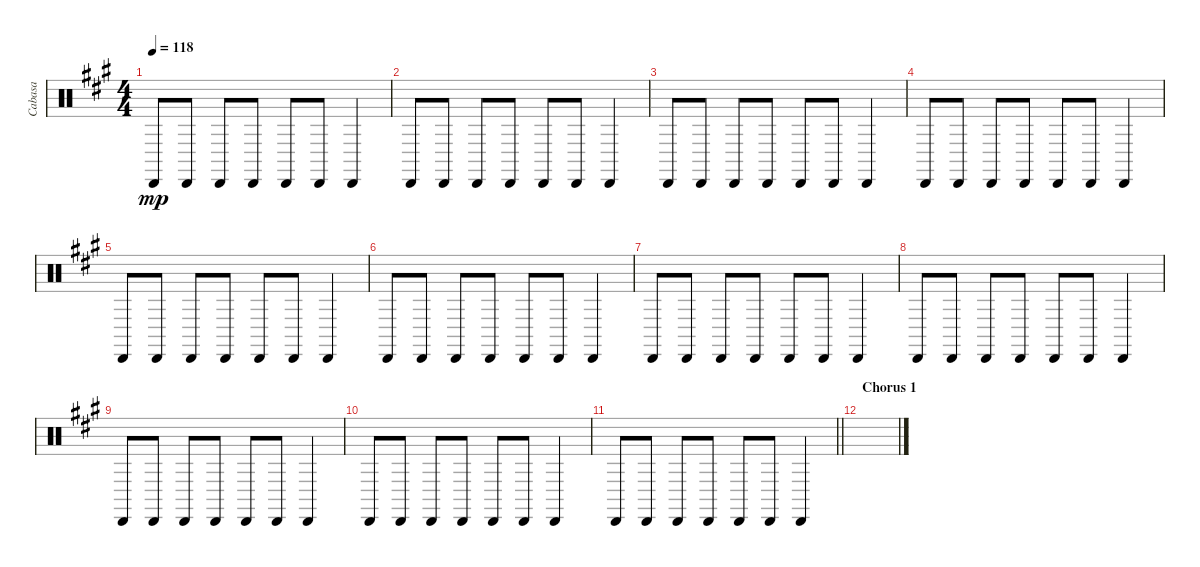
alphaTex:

\track ("Cabasa" "Cabasa") {instrument percussion}
\staff {score}
\articulation defaults
\ts (4 4)
\tempo 118
\clef neutral
\ks a "Cabasa (hit)".8{dy mp} "Cabasa (hit)".8 "Cabasa (hit)".8 "Cabasa (hit)".8 "Cabasa (hit)".8 "Cabasa (hit)".8 "Cabasa (hit)".4
|
"Cabasa (hit)".8 "Cabasa (hit)".8 "Cabasa (hit)".8 "Cabasa (hit)".8 "Cabasa (hit)".8 "Cabasa (hit)".8 "Cabasa (hit)".4 |
"Cabasa (hit)".8 "Cabasa (hit)".8 "Cabasa (hit)".8 "Cabasa (hit)".8 "Cabasa (hit)".8 "Cabasa (hit)".8 "Cabasa (hit)".4 |
"Cabasa (hit)".8 "Cabasa (hit)".8 "Cabasa (hit)".8 "Cabasa (hit)".8 "Cabasa (hit)".8 "Cabasa (hit)".8 "Cabasa (hit)".4 |
"Cabasa (hit)".8 "Cabasa (hit)".8 "Cabasa (hit)".8 "Cabasa (hit)".8 "Cabasa (hit)".8 "Cabasa (hit)".8 "Cabasa (hit)".4 |
"Cabasa (hit)".8 "Cabasa (hit)".8 "Cabasa (hit)".8 "Cabasa (hit)".8 "Cabasa (hit)".8 "Cabasa (hit)".8 "Cabasa (hit)".4 |
"Cabasa (hit)".8 "Cabasa (hit)".8 "Cabasa (hit)".8 "Cabasa (hit)".8 "Cabasa (hit)".8 "Cabasa (hit)".8 "Cabasa (hit)".4 |
"Cabasa (hit)".8 "Cabasa (hit)".8 "Cabasa (hit)".8 "Cabasa (hit)".8 "Cabasa (hit)".8 "Cabasa (hit)".8 "Cabasa (hit)".4 |
"Cabasa (hit)".8 "Cabasa (hit)".8 "Cabasa (hit)".8 "Cabasa (hit)".8 "Cabasa (hit)".8 "Cabasa (hit)".8 "Cabasa (hit)".4 |
"Cabasa (hit)".8 "Cabasa (hit)".8 "Cabasa (hit)".8 "Cabasa (hit)".8 "Cabasa (hit)".8 "Cabasa (hit)".8 "Cabasa (hit)".4 |
\barLineRight lightlight "Cabasa (hit)".8 "Cabasa (hit)".8 "Cabasa (hit)".8 "Cabasa (hit)".8 "Cabasa (hit)".8 "Cabasa (hit)".8 "Cabasa (hit)".4
|
\section ("" "Chorus 1")
